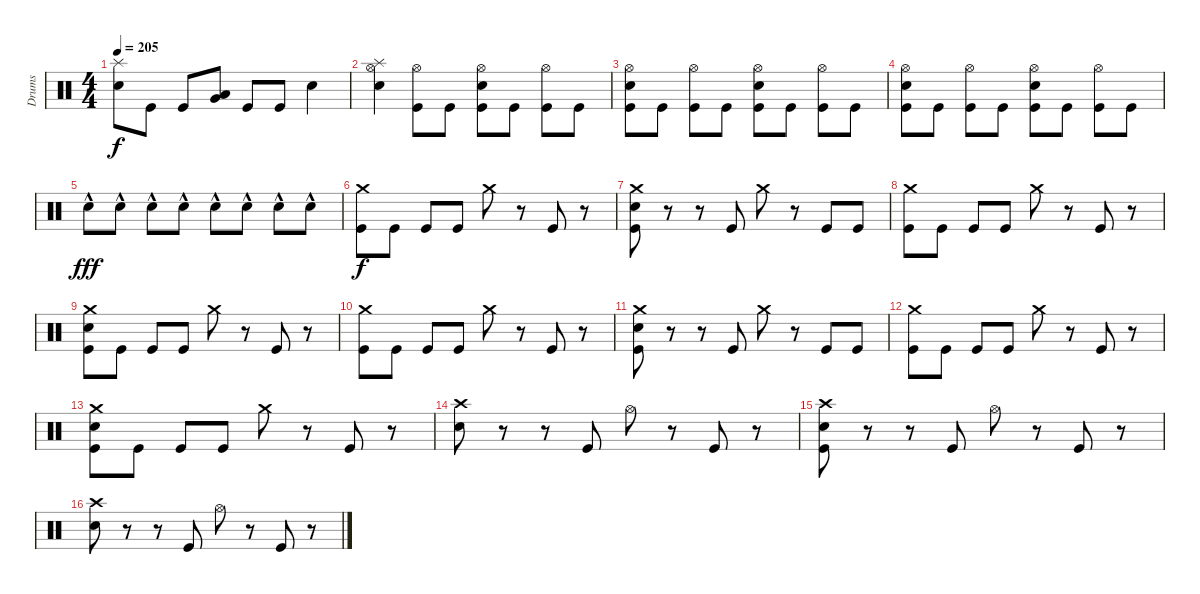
\track ("Drums" "Drums") {instrument percussion}
\staff {score}
\articulation defaults
\ts (4 4)
\tempo 205
\clef neutral
\ks c
("Electric Snare (hit)" "Splash (hit)").8{dy f} "Kick (hit)".8 "Kick (hit)".8 ("Very Low Tom (hit)" "Low Floor Tom (hit)").8 "Kick (hit)".8 "Kick (hit)".8 "Electric Snare (hit)".4 |
("Electric Snare (hit)" "Splash (hit)" "Hi-Hat (open)").4 ("Hi-Hat (open)" "Kick (hit)").8 "Kick (hit)".8 ("Electric Snare (hit)" "Hi-Hat (open)" "Kick (hit)").8 "Kick (hit)".8 ("Hi-Hat (open)" "Kick (hit)").8 "Kick (hit)".8 |
("Electric Snare (hit)" "Hi-Hat (open)" "Kick (hit)").8 "Kick (hit)".8 ("Hi-Hat (open)" "Kick (hit)").8 "Kick (hit)".8 ("Electric Snare (hit)" "Hi-Hat (open)" "Kick (hit)").8 "Kick (hit)".8 ("Hi-Hat (open)" "Kick (hit)").8 "Kick (hit)".8 |
("Electric Snare (hit)" "Hi-Hat (open)" "Kick (hit)").8 "Kick (hit)".8 ("Hi-Hat (open)" "Kick (hit)").8 "Kick (hit)".8 ("Electric Snare (hit)" "Hi-Hat (open)" "Kick (hit)").8 "Kick (hit)".8 ("Hi-Hat (open)" "Kick (hit)").8 "Kick (hit)".8 |
"Electric Snare (hit)"{hac}.8{dy fff} "Electric Snare (hit)"{hac}.8 "Electric Snare (hit)"{hac}.8 "Electric Snare (hit)"{hac}.8 "Electric Snare (hit)"{hac}.8 "Electric Snare (hit)"{hac}.8 "Electric Snare (hit)"{hac}.8 "Electric Snare (hit)"{hac}.8 |
("Crash medium (hit)" "Kick (hit)").8{dy f} "Kick (hit)".8 "Kick (hit)".8 "Kick (hit)".8 "Crash medium (hit)".8 r.8 "Kick (hit)".8 r.8 |
("Electric Snare (hit)" "Crash medium (hit)" "Kick (hit)").8 r.8 r.8 "Kick (hit)".8 "Crash medium (hit)".8 r.8 "Kick (hit)".8 "Kick (hit)".8 |
("Crash medium (hit)" "Kick (hit)").8 "Kick (hit)".8 "Kick (hit)".8 "Kick (hit)".8 "Crash medium (hit)".8 r.8 "Kick (hit)".8 r.8 |
("Electric Snare (hit)" "Crash medium (hit)" "Kick (hit)").8 "Kick (hit)".8 "Kick (hit)".8 "Kick (hit)".8 "Crash medium (hit)".8 r.8 "Kick (hit)".8 r.8 |
("Crash medium (hit)" "Kick (hit)").8 "Kick (hit)".8 "Kick (hit)".8 "Kick (hit)".8 "Crash medium (hit)".8 r.8 "Kick (hit)".8 r.8 |
("Electric Snare (hit)" "Crash medium (hit)" "Kick (hit)").8 r.8 r.8 "Kick (hit)".8 "Crash medium (hit)".8 r.8 "Kick (hit)".8 "Kick (hit)".8 |
("Crash medium (hit)" "Kick (hit)").8 "Kick (hit)".8 "Kick (hit)".8 "Kick (hit)".8 "Crash medium (hit)".8 r.8 "Kick (hit)".8 r.8 |
("Electric Snare (hit)" "Crash medium (hit)" "Kick (hit)").8 "Kick (hit)".8 "Kick (hit)".8 "Kick (hit)".8 "Crash medium (hit)".8 r.8 "Kick (hit)".8 r.8 |
("Electric Snare (hit)" "Crash high (hit)").8 r.8 r.8 "Kick (hit)".8 "Hi-Hat (open)".8 r.8 "Kick (hit)".8 r.8 |
("Electric Snare (hit)" "Crash high (hit)" "Kick (hit)").8 r.8 r.8 "Kick (hit)".8 "Hi-Hat (open)".8 r.8 "Kick (hit)".8 r.8 |
("Electric Snare (hit)" "Crash high (hit)").8 r.8 r.8 "Kick (hit)".8 "Hi-Hat (open)".8 r.8 "Kick (hit)".8 r.8
